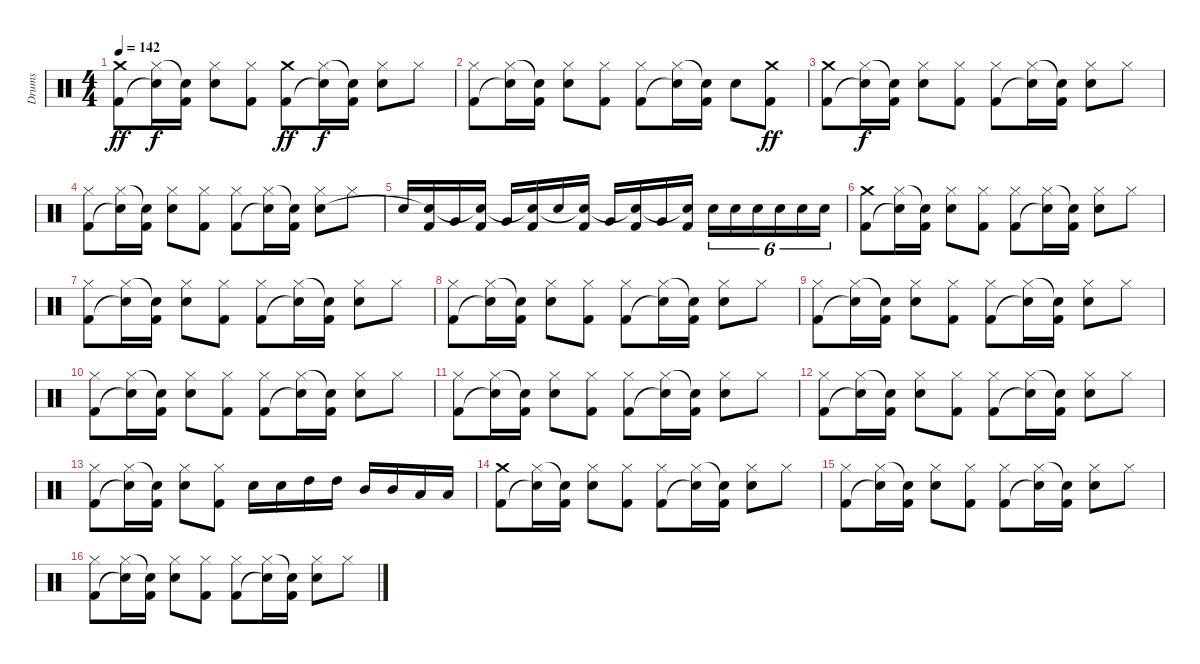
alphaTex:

\track ("Drums" "Drums") {instrument percussion}
\staff {score}
\articulation defaults
\ts (4 4)
\tempo 142
\clef neutral
\ks c
("Crash medium (hit)" "Kick (hit) 2").8{dy ff} ("Hi-Hat (closed)" "Snare (hit)"{t}).16{dy f} ("Snare (hit)"{t} "Kick (hit) 2").16 ("Hi-Hat (closed)" "Snare (hit) 2").8 ("Hi-Hat (closed)" "Kick (hit) 2").8 ("Crash medium (hit)" "Kick (hit) 2").8{dy ff} ("Hi-Hat (closed)" "Snare (hit)"{t}).16{dy f} ("Snare (hit)"{t} "Kick (hit) 2").16 ("Hi-Hat (closed)" "Snare (hit) 2").8 "Hi-Hat (closed)".8 |
("Hi-Hat (closed)" "Kick (hit) 2").8 ("Hi-Hat (closed)" "Snare (hit)"{t}).16 ("Snare (hit)"{t} "Kick (hit) 2").16 ("Hi-Hat (closed)" "Snare (hit) 2").8 ("Hi-Hat (closed)" "Kick (hit) 2").8 ("Hi-Hat (closed)" "Kick (hit) 2").8 ("Hi-Hat (closed)" "Snare (hit)"{t}).16 ("Snare (hit)"{t} "Kick (hit) 2").16 "Snare (hit) 2".8 ("Crash medium (hit)" "Kick (hit) 2").8{dy ff} |
("Crash medium (hit)" "Kick (hit) 2").8 ("Hi-Hat (closed)" "Snare (hit)"{t}).16{dy f} ("Snare (hit)"{t} "Kick (hit) 2").16 ("Hi-Hat (closed)" "Snare (hit) 2").8 ("Hi-Hat (closed)" "Kick (hit) 2").8 ("Hi-Hat (closed)" "Kick (hit) 2").8 ("Hi-Hat (closed)" "Snare (hit)"{t}).16 ("Snare (hit)"{t} "Kick (hit) 2").16 ("Hi-Hat (closed)" "Snare (hit) 2").8 "Hi-Hat (closed)".8 |
("Hi-Hat (closed)" "Kick (hit) 2").8 ("Hi-Hat (closed)" "Snare (hit)"{t}).16 ("Snare (hit)"{t} "Kick (hit) 2").16 ("Hi-Hat (closed)" "Snare (hit) 2").8 ("Hi-Hat (closed)" "Kick (hit) 2").8 ("Hi-Hat (closed)" "Kick (hit) 2").8 ("Hi-Hat (closed)" "Snare (hit)"{t}).16 ("Snare (hit)"{t} "Kick (hit) 2").16 ("Hi-Hat (closed)" "Snare (hit) 2").8 "Hi-Hat (closed)".8 |
"Snare (hit) 2".16 ("Kick (hit) 2" "Snare (hit)"{t}).16 "Very Low Tom (hit)".16 ("Kick (hit) 2" "Snare (hit)"{t}).16 "Very Low Tom (hit)".16 ("Kick (hit) 2" "Snare (hit)"{t}).16 "Snare (hit) 2".16 ("Kick (hit) 2" "Snare (hit)"{t}).16 "Very Low Tom (hit)".16 ("Kick (hit) 2" "Snare (hit)"{t}).16 "Very Low Tom (hit)".16 ("Kick (hit) 2" "Snare (hit)"{t}).16 "Snare (hit) 2".16{tu (6 4)} "Snare (hit) 2".16{tu (6 4)} "Snare (hit) 2".16{tu (6 4)} "Snare (hit) 2".16{tu (6 4)} "Snare (hit) 2".16{tu (6 4)} "Snare (hit) 2".16{tu (6 4)} |
("Crash medium (hit)" "Kick (hit) 2").8 ("Hi-Hat (closed)" "Snare (hit)"{t}).16 ("Snare (hit)"{t} "Kick (hit) 2").16 ("Hi-Hat (closed)" "Snare (hit) 2").8 ("Hi-Hat (closed)" "Kick (hit) 2").8 ("Hi-Hat (closed)" "Kick (hit) 2").8 ("Hi-Hat (closed)" "Snare (hit)"{t}).16 ("Snare (hit)"{t} "Kick (hit) 2").16 ("Hi-Hat (closed)" "Snare (hit) 2").8 "Hi-Hat (closed)".8 |
("Hi-Hat (closed)" "Kick (hit) 2").8 ("Hi-Hat (closed)" "Snare (hit)"{t}).16 ("Snare (hit)"{t} "Kick (hit) 2").16 ("Hi-Hat (closed)" "Snare (hit) 2").8 ("Hi-Hat (closed)" "Kick (hit) 2").8 ("Hi-Hat (closed)" "Kick (hit) 2").8 ("Hi-Hat (closed)" "Snare (hit)"{t}).16 ("Snare (hit)"{t} "Kick (hit) 2").16 ("Hi-Hat (closed)" "Snare (hit) 2").8 "Hi-Hat (closed)".8 |
("Hi-Hat (closed)" "Kick (hit) 2").8 ("Hi-Hat (closed)" "Snare (hit)"{t}).16 ("Snare (hit)"{t} "Kick (hit) 2").16 ("Hi-Hat (closed)" "Snare (hit) 2").8 ("Hi-Hat (closed)" "Kick (hit) 2").8 ("Hi-Hat (closed)" "Kick (hit) 2").8 ("Hi-Hat (closed)" "Snare (hit)"{t}).16 ("Snare (hit)"{t} "Kick (hit) 2").16 ("Hi-Hat (closed)" "Snare (hit) 2").8 "Hi-Hat (closed)".8 |
("Hi-Hat (closed)" "Kick (hit) 2").8 ("Hi-Hat (closed)" "Snare (hit)"{t}).16 ("Snare (hit)"{t} "Kick (hit) 2").16 ("Hi-Hat (closed)" "Snare (hit) 2").8 ("Hi-Hat (closed)" "Kick (hit) 2").8 ("Hi-Hat (closed)" "Kick (hit) 2").8 ("Hi-Hat (closed)" "Snare (hit)"{t}).16 ("Snare (hit)"{t} "Kick (hit) 2").16 ("Hi-Hat (closed)" "Snare (hit) 2").8 "Hi-Hat (closed)".8 |
("Hi-Hat (closed)" "Kick (hit) 2").8 ("Hi-Hat (closed)" "Snare (hit)"{t}).16 ("Snare (hit)"{t} "Kick (hit) 2").16 ("Hi-Hat (closed)" "Snare (hit) 2").8 ("Hi-Hat (closed)" "Kick (hit) 2").8 ("Hi-Hat (closed)" "Kick (hit) 2").8 ("Hi-Hat (closed)" "Snare (hit)"{t}).16 ("Snare (hit)"{t} "Kick (hit) 2").16 ("Hi-Hat (closed)" "Snare (hit) 2").8 "Hi-Hat (closed)".8 |
("Hi-Hat (closed)" "Kick (hit) 2").8 ("Hi-Hat (closed)" "Snare (hit)"{t}).16 ("Snare (hit)"{t} "Kick (hit) 2").16 ("Hi-Hat (closed)" "Snare (hit) 2").8 ("Hi-Hat (closed)" "Kick (hit) 2").8 ("Hi-Hat (closed)" "Kick (hit) 2").8 ("Hi-Hat (closed)" "Snare (hit)"{t}).16 ("Snare (hit)"{t} "Kick (hit) 2").16 ("Hi-Hat (closed)" "Snare (hit) 2").8 "Hi-Hat (closed)".8 |
("Hi-Hat (closed)" "Kick (hit) 2").8 ("Hi-Hat (closed)" "Snare (hit)"{t}).16 ("Snare (hit)"{t} "Kick (hit) 2").16 ("Hi-Hat (closed)" "Snare (hit) 2").8 ("Hi-Hat (closed)" "Kick (hit) 2").8 ("Hi-Hat (closed)" "Kick (hit) 2").8 ("Hi-Hat (closed)" "Snare (hit)"{t}).16 ("Snare (hit)"{t} "Kick (hit) 2").16 ("Hi-Hat (closed)" "Snare (hit) 2").8 "Hi-Hat (closed)".8 |
("Hi-Hat (closed)" "Kick (hit) 2").8 ("Hi-Hat (closed)" "Snare (hit)"{t}).16 ("Snare (hit)"{t} "Kick (hit) 2").16 ("Hi-Hat (closed)" "Snare (hit) 2").8 ("Hi-Hat (closed)" "Kick (hit) 2").8 "Snare (hit) 2".16 "Snare (hit) 2".16 "High Tom (hit)".16 "High Tom (hit)".16 "Mid Tom (hit)".16 "Mid Tom (hit)".16 "Low Tom (hit)".16 "Low Tom (hit)".16 |
("Crash medium (hit)" "Kick (hit) 2").8 ("Hi-Hat (closed)" "Snare (hit)"{t}).16 ("Snare (hit)"{t} "Kick (hit) 2").16 ("Hi-Hat (closed)" "Snare (hit) 2").8 ("Hi-Hat (closed)" "Kick (hit) 2").8 ("Hi-Hat (closed)" "Kick (hit) 2").8 ("Hi-Hat (closed)" "Snare (hit)"{t}).16 ("Snare (hit)"{t} "Kick (hit) 2").16 ("Hi-Hat (closed)" "Snare (hit) 2").8 "Hi-Hat (closed)".8 |
("Hi-Hat (closed)" "Kick (hit) 2").8 ("Hi-Hat (closed)" "Snare (hit)"{t}).16 ("Snare (hit)"{t} "Kick (hit) 2").16 ("Hi-Hat (closed)" "Snare (hit) 2").8 ("Hi-Hat (closed)" "Kick (hit) 2").8 ("Hi-Hat (closed)" "Kick (hit) 2").8 ("Hi-Hat (closed)" "Snare (hit)"{t}).16 ("Snare (hit)"{t} "Kick (hit) 2").16 ("Hi-Hat (closed)" "Snare (hit) 2").8 "Hi-Hat (closed)".8 |
("Hi-Hat (closed)" "Kick (hit) 2").8 ("Hi-Hat (closed)" "Snare (hit)"{t}).16 ("Snare (hit)"{t} "Kick (hit) 2").16 ("Hi-Hat (closed)" "Snare (hit) 2").8 ("Hi-Hat (closed)" "Kick (hit) 2").8 ("Hi-Hat (closed)" "Kick (hit) 2").8 ("Hi-Hat (closed)" "Snare (hit)"{t}).16 ("Snare (hit)"{t} "Kick (hit) 2").16 ("Hi-Hat (closed)" "Snare (hit) 2").8 "Hi-Hat (closed)".8
